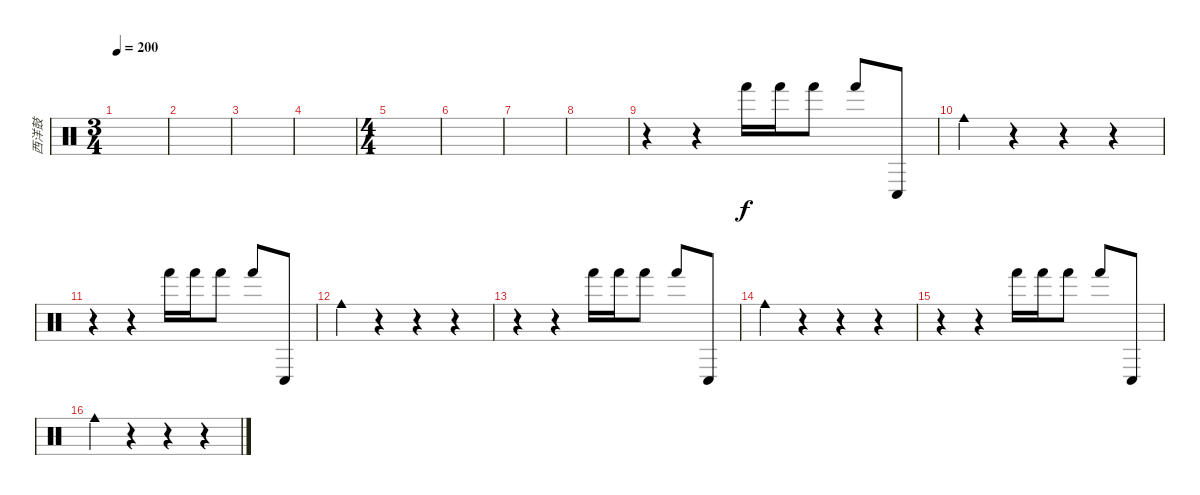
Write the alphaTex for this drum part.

\track ("西洋鼓" "西洋鼓") {instrument percussion}
\staff {score}
\articulation defaults
\ts (3 4)
\tempo 200
\clef neutral
\ks c
|
|
|
|
\ts (4 4)
|
|
|
|
r.4 r.4 "Hand (hit)".16 "Hand (hit)".16 "Hand (hit)".8 "Hand (hit)".8 "Conga low (hit)".8 |
"Cowbell medium (hit)".4 r.4 r.4 r.4 |
r.4 r.4 "Hand (hit)".16 "Hand (hit)".16 "Hand (hit)".8 "Hand (hit)".8 "Conga low (hit)".8 |
"Cowbell medium (hit)".4 r.4 r.4 r.4 |
r.4 r.4 "Hand (hit)".16 "Hand (hit)".16 "Hand (hit)".8 "Hand (hit)".8 "Conga low (hit)".8 |
"Cowbell medium (hit)".4 r.4 r.4 r.4 |
r.4 r.4 "Hand (hit)".16 "Hand (hit)".16 "Hand (hit)".8 "Hand (hit)".8 "Conga low (hit)".8 |
"Cowbell medium (hit)".4 r.4 r.4 r.4
